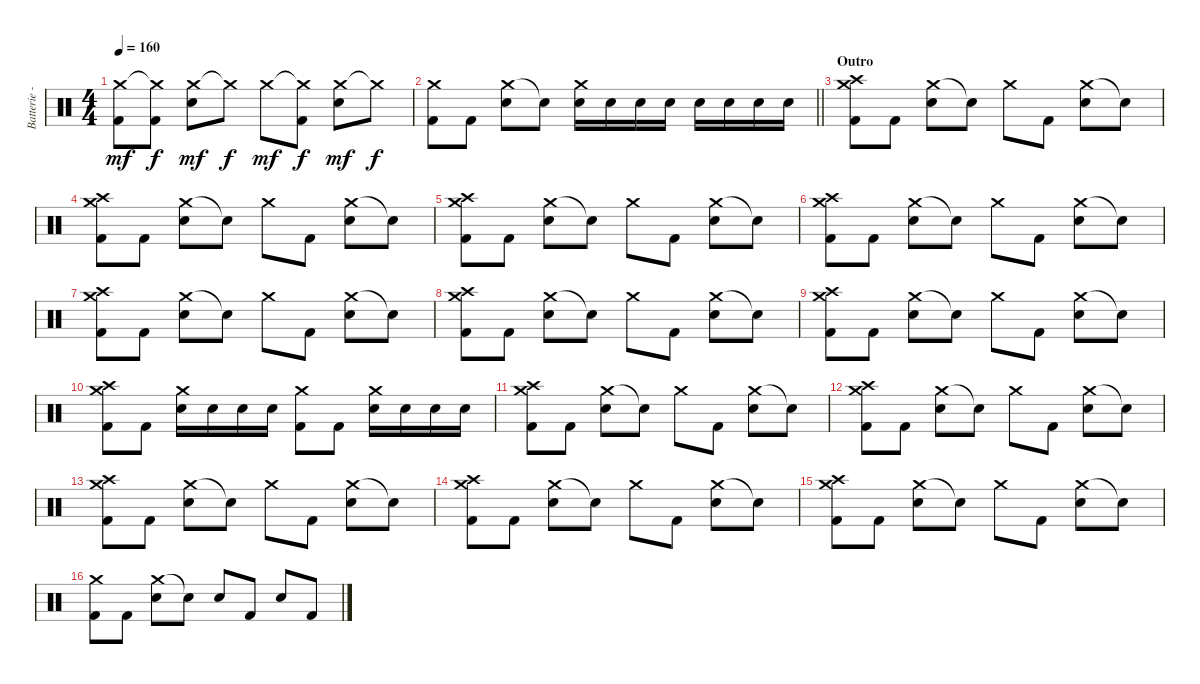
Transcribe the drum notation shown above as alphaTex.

\track ("Batterie - Mikko" "Batterie -") {instrument percussion}
\staff {score}
\articulation defaults
\ts (4 4)
\tempo 160
\clef neutral
\ks c
("Crash medium (hit)" "Kick (hit) 2").8{dy mf} ("Crash medium (hit)"{t} "Kick (hit) 2").8{dy f} ("Crash medium (hit)" "Snare (hit) 2").8{dy mf} "Crash medium (hit)"{t}.8{dy f} "Crash medium (hit)".8{dy mf} ("Crash medium (hit)"{t} "Kick (hit) 2").8{dy f} ("Crash medium (hit)" "Snare (hit) 2").8{dy mf} "Crash medium (hit)"{t}.8{dy f} |
\barLineRight lightlight
("Crash medium (hit)" "Kick (hit) 2").8 "Kick (hit) 2".8 ("Crash medium (hit)" "Snare (hit) 2").8 "Snare (hit)"{t}.8 ("Crash medium (hit)" "Electric Snare (hit)").16 "Electric Snare (hit)".16 "Electric Snare (hit)".16 "Electric Snare (hit)".16 "Electric Snare (hit)".16 "Electric Snare (hit)".16 "Electric Snare (hit)".16 "Electric Snare (hit)".16 |
\section ("" "Outro")
("Crash medium (hit)" "Crash high (hit)" "Kick (hit) 2").8 "Kick (hit) 2".8 ("Crash medium (hit)" "Snare (hit) 2").8 "Snare (hit)"{t}.8 "Crash medium (hit)".8 "Kick (hit) 2".8 ("Crash medium (hit)" "Snare (hit) 2").8 "Snare (hit)"{t}.8 |
("Crash medium (hit)" "Crash high (hit)" "Kick (hit) 2").8 "Kick (hit) 2".8 ("Crash medium (hit)" "Snare (hit) 2").8 "Snare (hit)"{t}.8 "Crash medium (hit)".8 "Kick (hit) 2".8 ("Crash medium (hit)" "Snare (hit) 2").8 "Snare (hit)"{t}.8 |
("Crash medium (hit)" "Crash high (hit)" "Kick (hit) 2").8 "Kick (hit) 2".8 ("Crash medium (hit)" "Snare (hit) 2").8 "Snare (hit)"{t}.8 "Crash medium (hit)".8 "Kick (hit) 2".8 ("Crash medium (hit)" "Snare (hit) 2").8 "Snare (hit)"{t}.8 |
("Crash medium (hit)" "Crash high (hit)" "Kick (hit) 2").8 "Kick (hit) 2".8 ("Crash medium (hit)" "Snare (hit) 2").8 "Snare (hit)"{t}.8 "Crash medium (hit)".8 "Kick (hit) 2".8 ("Crash medium (hit)" "Snare (hit) 2").8 "Snare (hit)"{t}.8 |
("Crash medium (hit)" "Crash high (hit)" "Kick (hit) 2").8 "Kick (hit) 2".8 ("Crash medium (hit)" "Snare (hit) 2").8 "Snare (hit)"{t}.8 "Crash medium (hit)".8 "Kick (hit) 2".8 ("Crash medium (hit)" "Snare (hit) 2").8 "Snare (hit)"{t}.8 |
("Crash medium (hit)" "Crash high (hit)" "Kick (hit) 2").8 "Kick (hit) 2".8 ("Crash medium (hit)" "Snare (hit) 2").8 "Snare (hit)"{t}.8 "Crash medium (hit)".8 "Kick (hit) 2".8 ("Crash medium (hit)" "Snare (hit) 2").8 "Snare (hit)"{t}.8 |
("Crash medium (hit)" "Crash high (hit)" "Kick (hit) 2").8 "Kick (hit) 2".8 ("Crash medium (hit)" "Snare (hit) 2").8 "Snare (hit)"{t}.8 "Crash medium (hit)".8 "Kick (hit) 2".8 ("Crash medium (hit)" "Snare (hit) 2").8 "Snare (hit)"{t}.8 |
("Crash medium (hit)" "Crash high (hit)" "Kick (hit) 2").8 "Kick (hit) 2".8 ("Crash medium (hit)" "Snare (hit) 2").16 "Snare (hit) 2".16 "Snare (hit) 2".16 "Snare (hit) 2".16 ("Crash medium (hit)" "Kick (hit) 2").8 "Kick (hit) 2".8 ("Crash medium (hit)" "Snare (hit) 2").16 "Snare (hit) 2".16 "Snare (hit) 2".16 "Snare (hit) 2".16 |
("Crash medium (hit)" "Crash high (hit)" "Kick (hit) 2").8 "Kick (hit) 2".8 ("Crash medium (hit)" "Snare (hit) 2").8 "Snare (hit)"{t}.8 "Crash medium (hit)".8 "Kick (hit) 2".8 ("Crash medium (hit)" "Snare (hit) 2").8 "Snare (hit)"{t}.8 |
("Crash medium (hit)" "Crash high (hit)" "Kick (hit) 2").8 "Kick (hit) 2".8 ("Crash medium (hit)" "Snare (hit) 2").8 "Snare (hit)"{t}.8 "Crash medium (hit)".8 "Kick (hit) 2".8 ("Crash medium (hit)" "Snare (hit) 2").8 "Snare (hit)"{t}.8 |
("Crash medium (hit)" "Crash high (hit)" "Kick (hit) 2").8 "Kick (hit) 2".8 ("Crash medium (hit)" "Snare (hit) 2").8 "Snare (hit)"{t}.8 "Crash medium (hit)".8 "Kick (hit) 2".8 ("Crash medium (hit)" "Snare (hit) 2").8 "Snare (hit)"{t}.8 |
("Crash medium (hit)" "Crash high (hit)" "Kick (hit) 2").8 "Kick (hit) 2".8 ("Crash medium (hit)" "Snare (hit) 2").8 "Snare (hit)"{t}.8 "Crash medium (hit)".8 "Kick (hit) 2".8 ("Crash medium (hit)" "Snare (hit) 2").8 "Snare (hit)"{t}.8 |
("Crash medium (hit)" "Crash high (hit)" "Kick (hit) 2").8 "Kick (hit) 2".8 ("Crash medium (hit)" "Snare (hit) 2").8 "Snare (hit)"{t}.8 "Crash medium (hit)".8 "Kick (hit) 2".8 ("Crash medium (hit)" "Snare (hit) 2").8 "Snare (hit)"{t}.8 |
("Crash medium (hit)" "Kick (hit) 2").8 "Kick (hit) 2".8 ("Crash medium (hit)" "Snare (hit) 2").8 "Snare (hit)"{t}.8 "Snare (hit) 2".8 "Kick (hit) 2".8 "Snare (hit) 2".8 "Kick (hit) 2".8
